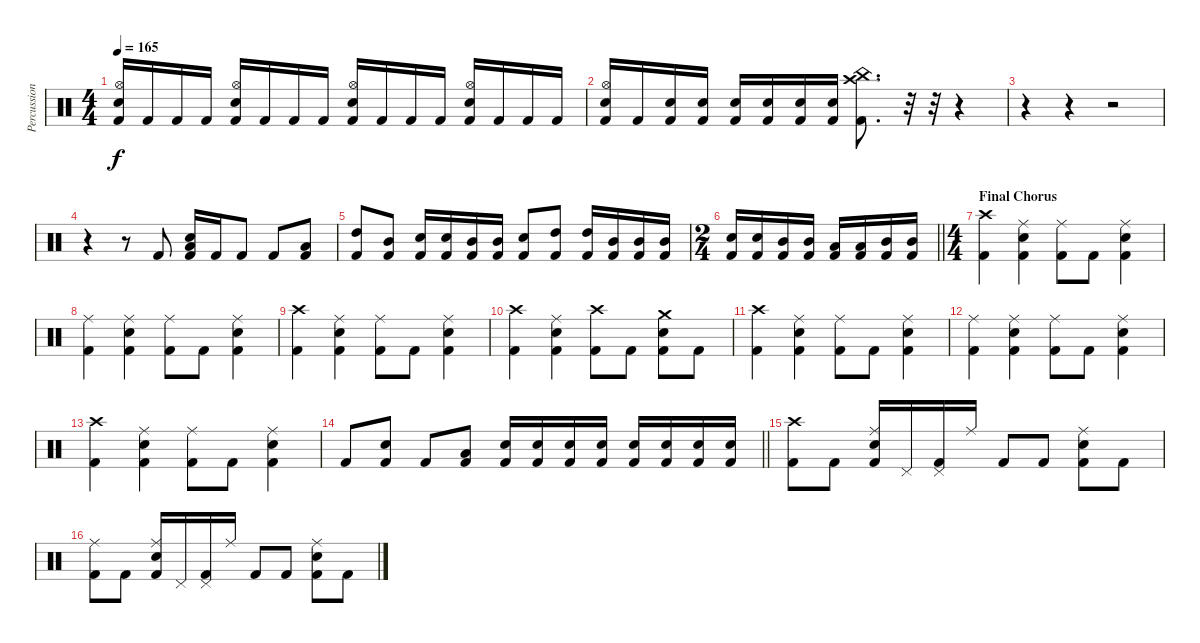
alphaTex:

\track ("Percussion" "Percussion") {instrument percussion}
\staff {score}
\articulation defaults
\ts (4 4)
\tempo 165
\clef neutral
\ks c
("Kick (hit) 2" "Hi-Hat (open)" "Snare (hit) 2").16{dy f} "Kick (hit) 2".16 "Kick (hit) 2".16 "Kick (hit) 2".16 ("Kick (hit) 2" "Hi-Hat (open)" "Snare (hit) 2").16 "Kick (hit) 2".16 "Kick (hit) 2".16 "Kick (hit) 2".16 ("Kick (hit) 2" "Hi-Hat (open)" "Snare (hit) 2").16 "Kick (hit) 2".16 "Kick (hit) 2".16 "Kick (hit) 2".16 ("Kick (hit) 2" "Hi-Hat (open)" "Snare (hit) 2").16 "Kick (hit) 2".16 "Kick (hit) 2".16 "Kick (hit) 2".16 |
("Kick (hit) 2" "Hi-Hat (open)" "Snare (hit) 2").16 "Kick (hit) 2".16 ("Kick (hit) 2" "Snare (hit) 2").16 ("Kick (hit) 2" "Snare (hit) 2").16 ("Kick (hit) 2" "Snare (hit) 2").16 ("Kick (hit) 2" "Snare (hit) 2").16 ("Kick (hit) 2" "Snare (hit) 2").16 ("Kick (hit) 2" "Snare (hit) 2").16 ("Kick (hit) 2" "Crash high (hit)" "China (hit)").8{d} r.32 r.32 r.4 |
r.4 r.4 r.2 |
r.4 r.8 "Kick (hit) 2".8 ("Snare (hit) 2" "Low Tom (hit)" "Kick (hit) 2").16 "Kick (hit) 2".16 "Kick (hit) 2".8 "Kick (hit) 2".8 ("Low Tom (hit)" "Kick (hit) 2").8 |
("High Tom (hit)" "Kick (hit) 2").8 ("Mid Tom (hit)" "Kick (hit) 2").8 ("Snare (hit) 2" "Kick (hit) 2").16 ("Snare (hit) 2" "Kick (hit) 2").16 ("Mid Tom (hit)" "Kick (hit) 2").16 ("Mid Tom (hit)" "Kick (hit) 2").16 ("Snare (hit) 2" "Kick (hit) 2").8 ("High Tom (hit)" "Kick (hit) 2").8 ("High Tom (hit)" "Kick (hit) 2").16 ("Mid Tom (hit)" "Kick (hit) 2").16 ("Mid Tom (hit)" "Kick (hit) 2").16 ("Mid Tom (hit)" "Kick (hit) 2").16 |
\ts (2 4)
\barLineRight lightlight
("Snare (hit) 2" "Kick (hit) 2").16 ("Snare (hit) 2" "Kick (hit) 2").16 ("Mid Tom (hit)" "Kick (hit) 2").16 ("Mid Tom (hit)" "Kick (hit) 2").16 ("Low Tom (hit)" "Kick (hit) 2").16 ("Low Tom (hit)" "Kick (hit) 2").16 ("Mid Tom (hit)" "Kick (hit) 2").16 ("Mid Tom (hit)" "Kick (hit) 2").16 |
\ts (4 4)
\section ("" "Final Chorus")
("Crash high (hit)" "Kick (hit) 2").4 ("Snare (hit) 2" "Ride (middle)" "Kick (hit) 2").4 ("Ride (middle)" "Kick (hit) 2").8 "Kick (hit) 2".8 ("Snare (hit) 2" "Ride (middle)" "Kick (hit) 2").4 |
("Ride (middle)" "Kick (hit) 2").4 ("Snare (hit) 2" "Ride (middle)" "Kick (hit) 2").4 ("Ride (middle)" "Kick (hit) 2").8 "Kick (hit) 2".8 ("Snare (hit) 2" "Ride (middle)" "Kick (hit) 2").4 |
("Crash high (hit)" "Kick (hit) 2").4 ("Snare (hit) 2" "Ride (middle)" "Kick (hit) 2").4 ("Ride (middle)" "Kick (hit) 2").8 "Kick (hit) 2".8 ("Snare (hit) 2" "Ride (middle)" "Kick (hit) 2").4 |
("Crash high (hit)" "Kick (hit) 2").4 ("Snare (hit) 2" "Ride (middle)" "Kick (hit) 2").4 ("Crash high (hit)" "Kick (hit) 2").8 "Kick (hit) 2".8 ("Snare (hit) 2" "Crash medium (hit)" "Kick (hit) 2").8 "Kick (hit) 2".8 |
("Crash high (hit)" "Kick (hit) 2").4 ("Snare (hit) 2" "Ride (middle)" "Kick (hit) 2").4 ("Ride (middle)" "Kick (hit) 2").8 "Kick (hit) 2".8 ("Snare (hit) 2" "Ride (middle)" "Kick (hit) 2").4 |
("Ride (middle)" "Kick (hit) 2").4 ("Snare (hit) 2" "Ride (middle)" "Kick (hit) 2").4 ("Ride (middle)" "Kick (hit) 2").8 "Kick (hit) 2".8 ("Snare (hit) 2" "Ride (middle)" "Kick (hit) 2").4 |
("Crash high (hit)" "Kick (hit) 2").4 ("Snare (hit) 2" "Ride (middle)" "Kick (hit) 2").4 ("Ride (middle)" "Kick (hit) 2").8 "Kick (hit) 2".8 ("Snare (hit) 2" "Ride (middle)" "Kick (hit) 2").4 |
\barLineRight lightlight "Kick (hit) 2".8
("Snare (hit) 2" "Kick (hit) 2").8 "Kick (hit) 2".8 ("Low Tom (hit)" "Kick (hit) 2").8 ("Snare (hit) 2" "Kick (hit) 2").16 ("Snare (hit) 2" "Kick (hit) 2").16 ("Snare (hit) 2" "Kick (hit) 2").16 ("Snare (hit) 2" "Kick (hit) 2").16 ("Snare (hit) 2" "Kick (hit) 2").16 ("Snare (hit) 2" "Kick (hit) 2").16 ("Snare (hit) 2" "Kick (hit) 2").16 ("Snare (hit) 2" "Kick (hit) 2").16 |
("Crash high (hit)" "Kick (hit) 2").8 "Kick (hit) 2".8 ("Snare (hit) 2" "Ride (middle)" "Kick (hit) 2").16 "Pedal Hi-Hat (hit)".16 ("Pedal Hi-Hat (hit)" "Kick (hit) 2").16 "Ride (middle)".16 "Kick (hit) 2".8 "Kick (hit) 2".8 ("Ride (middle)" "Snare (hit) 2" "Kick (hit) 2").8 "Kick (hit) 2".8 |
("Ride (middle)" "Kick (hit) 2").8 "Kick (hit) 2".8 ("Snare (hit) 2" "Ride (middle)" "Kick (hit) 2").16 "Pedal Hi-Hat (hit)".16 ("Pedal Hi-Hat (hit)" "Kick (hit) 2").16 "Ride (middle)".16 "Kick (hit) 2".8 "Kick (hit) 2".8 ("Ride (middle)" "Snare (hit) 2" "Kick (hit) 2").8 "Kick (hit) 2".8
